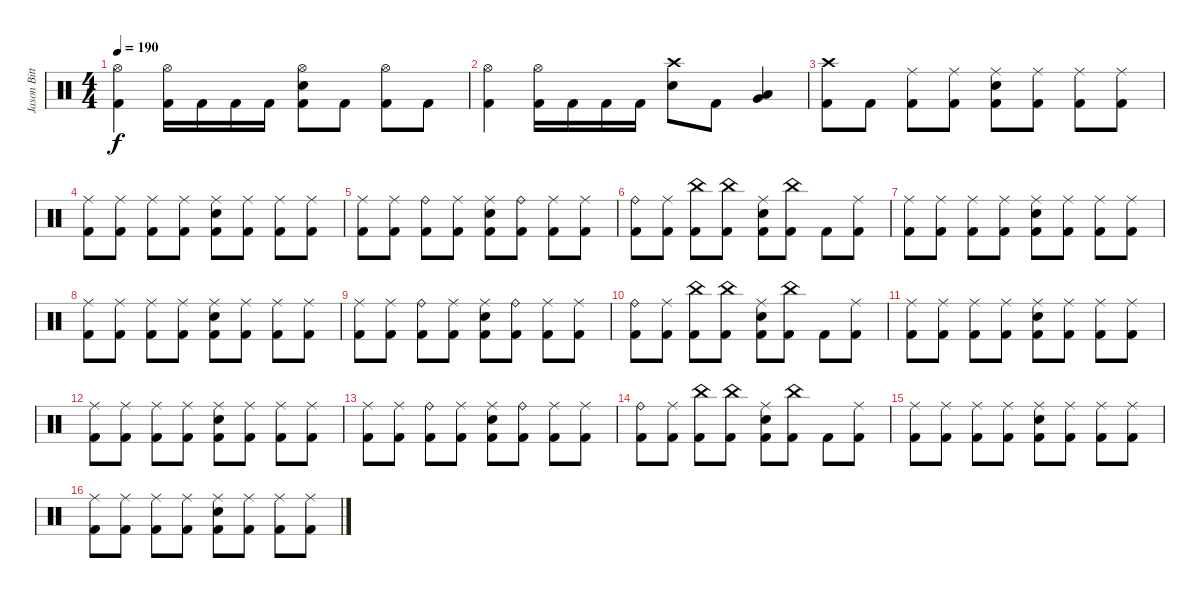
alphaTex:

\track ("Jason Bittner" "Jason Bitt") {instrument percussion}
\staff {score}
\articulation defaults
\ts (4 4)
\tempo 190
\clef neutral
\ks c
("Hi-Hat (open)" "Kick (hit) 2").4{dy f} ("Hi-Hat (open)" "Kick (hit) 2").16 "Kick (hit) 2".16 "Kick (hit) 2".16 "Kick (hit) 2".16 ("Hi-Hat (open)" "Electric Snare (hit)" "Kick (hit) 2").8 "Kick (hit) 2".8 ("Hi-Hat (open)" "Kick (hit) 2").8 "Kick (hit) 2".8 |
("Hi-Hat (open)" "Kick (hit) 2").4 ("Hi-Hat (open)" "Kick (hit) 2").16 "Kick (hit) 2".16 "Kick (hit) 2".16 "Kick (hit) 2".16 ("Crash high (hit)" "Electric Snare (hit)").8 "Kick (hit) 2".8 ("Low Tom (hit)" "Very Low Tom (hit)").4 |
("Crash high (hit)" "Kick (hit) 2").8 "Kick (hit) 2".8 ("Ride (middle)" "Kick (hit) 2").8 ("Ride (middle)" "Kick (hit) 2").8 ("Ride (middle)" "Electric Snare (hit)" "Kick (hit) 2").8 ("Ride (middle)" "Kick (hit) 2").8 ("Ride (middle)" "Kick (hit) 2").8 ("Ride (middle)" "Kick (hit) 2").8 |
("Ride (middle)" "Kick (hit) 2").8 ("Ride (middle)" "Kick (hit) 2").8 ("Ride (middle)" "Kick (hit) 2").8 ("Ride (middle)" "Kick (hit) 2").8 ("Ride (middle)" "Electric Snare (hit)" "Kick (hit) 2").8 ("Ride (middle)" "Kick (hit) 2").8 ("Ride (middle)" "Kick (hit) 2").8 ("Ride (middle)" "Kick (hit) 2").8 |
("Ride (middle)" "Kick (hit) 2").8 ("Ride (middle)" "Kick (hit) 2").8 ("Ride (bell)" "Kick (hit) 2").8 ("Ride (middle)" "Kick (hit) 2").8 ("Ride (middle)" "Electric Snare (hit)" "Kick (hit) 2").8 ("Ride (bell)" "Kick (hit) 2").8 ("Ride (middle)" "Kick (hit) 2").8 ("Ride (middle)" "Kick (hit) 2").8 |
("Ride (bell)" "Kick (hit) 2").8 ("Ride (middle)" "Kick (hit) 2").8 ("China (hit)" "Kick (hit) 2").8 ("China (hit)" "Kick (hit) 2").8 ("Ride (middle)" "Electric Snare (hit)" "Kick (hit) 2").8 ("China (hit)" "Kick (hit) 2").8 "Kick (hit) 2".8 ("Ride (middle)" "Kick (hit) 2").8 |
("Ride (middle)" "Kick (hit) 2").8 ("Ride (middle)" "Kick (hit) 2").8 ("Ride (middle)" "Kick (hit) 2").8 ("Ride (middle)" "Kick (hit) 2").8 ("Ride (middle)" "Electric Snare (hit)" "Kick (hit) 2").8 ("Ride (middle)" "Kick (hit) 2").8 ("Ride (middle)" "Kick (hit) 2").8 ("Ride (middle)" "Kick (hit) 2").8 |
("Ride (middle)" "Kick (hit) 2").8 ("Ride (middle)" "Kick (hit) 2").8 ("Ride (middle)" "Kick (hit) 2").8 ("Ride (middle)" "Kick (hit) 2").8 ("Ride (middle)" "Electric Snare (hit)" "Kick (hit) 2").8 ("Ride (middle)" "Kick (hit) 2").8 ("Ride (middle)" "Kick (hit) 2").8 ("Ride (middle)" "Kick (hit) 2").8 |
("Ride (middle)" "Kick (hit) 2").8 ("Ride (middle)" "Kick (hit) 2").8 ("Ride (bell)" "Kick (hit) 2").8 ("Ride (middle)" "Kick (hit) 2").8 ("Ride (middle)" "Electric Snare (hit)" "Kick (hit) 2").8 ("Ride (bell)" "Kick (hit) 2").8 ("Ride (middle)" "Kick (hit) 2").8 ("Ride (middle)" "Kick (hit) 2").8 |
("Ride (bell)" "Kick (hit) 2").8 ("Ride (middle)" "Kick (hit) 2").8 ("China (hit)" "Kick (hit) 2").8 ("China (hit)" "Kick (hit) 2").8 ("Ride (middle)" "Electric Snare (hit)" "Kick (hit) 2").8 ("China (hit)" "Kick (hit) 2").8 "Kick (hit) 2".8 ("Ride (middle)" "Kick (hit) 2").8 |
("Ride (middle)" "Kick (hit) 2").8 ("Ride (middle)" "Kick (hit) 2").8 ("Ride (middle)" "Kick (hit) 2").8 ("Ride (middle)" "Kick (hit) 2").8 ("Ride (middle)" "Electric Snare (hit)" "Kick (hit) 2").8 ("Ride (middle)" "Kick (hit) 2").8 ("Ride (middle)" "Kick (hit) 2").8 ("Ride (middle)" "Kick (hit) 2").8 |
("Ride (middle)" "Kick (hit) 2").8 ("Ride (middle)" "Kick (hit) 2").8 ("Ride (middle)" "Kick (hit) 2").8 ("Ride (middle)" "Kick (hit) 2").8 ("Ride (middle)" "Electric Snare (hit)" "Kick (hit) 2").8 ("Ride (middle)" "Kick (hit) 2").8 ("Ride (middle)" "Kick (hit) 2").8 ("Ride (middle)" "Kick (hit) 2").8 |
("Ride (middle)" "Kick (hit) 2").8 ("Ride (middle)" "Kick (hit) 2").8 ("Ride (bell)" "Kick (hit) 2").8 ("Ride (middle)" "Kick (hit) 2").8 ("Ride (middle)" "Electric Snare (hit)" "Kick (hit) 2").8 ("Ride (bell)" "Kick (hit) 2").8 ("Ride (middle)" "Kick (hit) 2").8 ("Ride (middle)" "Kick (hit) 2").8 |
("Ride (bell)" "Kick (hit) 2").8 ("Ride (middle)" "Kick (hit) 2").8 ("China (hit)" "Kick (hit) 2").8 ("China (hit)" "Kick (hit) 2").8 ("Ride (middle)" "Electric Snare (hit)" "Kick (hit) 2").8 ("China (hit)" "Kick (hit) 2").8 "Kick (hit) 2".8 ("Ride (middle)" "Kick (hit) 2").8 |
("Ride (middle)" "Kick (hit) 2").8 ("Ride (middle)" "Kick (hit) 2").8 ("Ride (middle)" "Kick (hit) 2").8 ("Ride (middle)" "Kick (hit) 2").8 ("Ride (middle)" "Electric Snare (hit)" "Kick (hit) 2").8 ("Ride (middle)" "Kick (hit) 2").8 ("Ride (middle)" "Kick (hit) 2").8 ("Ride (middle)" "Kick (hit) 2").8 |
("Ride (middle)" "Kick (hit) 2").8 ("Ride (middle)" "Kick (hit) 2").8 ("Ride (middle)" "Kick (hit) 2").8 ("Ride (middle)" "Kick (hit) 2").8 ("Ride (middle)" "Electric Snare (hit)" "Kick (hit) 2").8 ("Ride (middle)" "Kick (hit) 2").8 ("Ride (middle)" "Kick (hit) 2").8 ("Ride (middle)" "Kick (hit) 2").8
